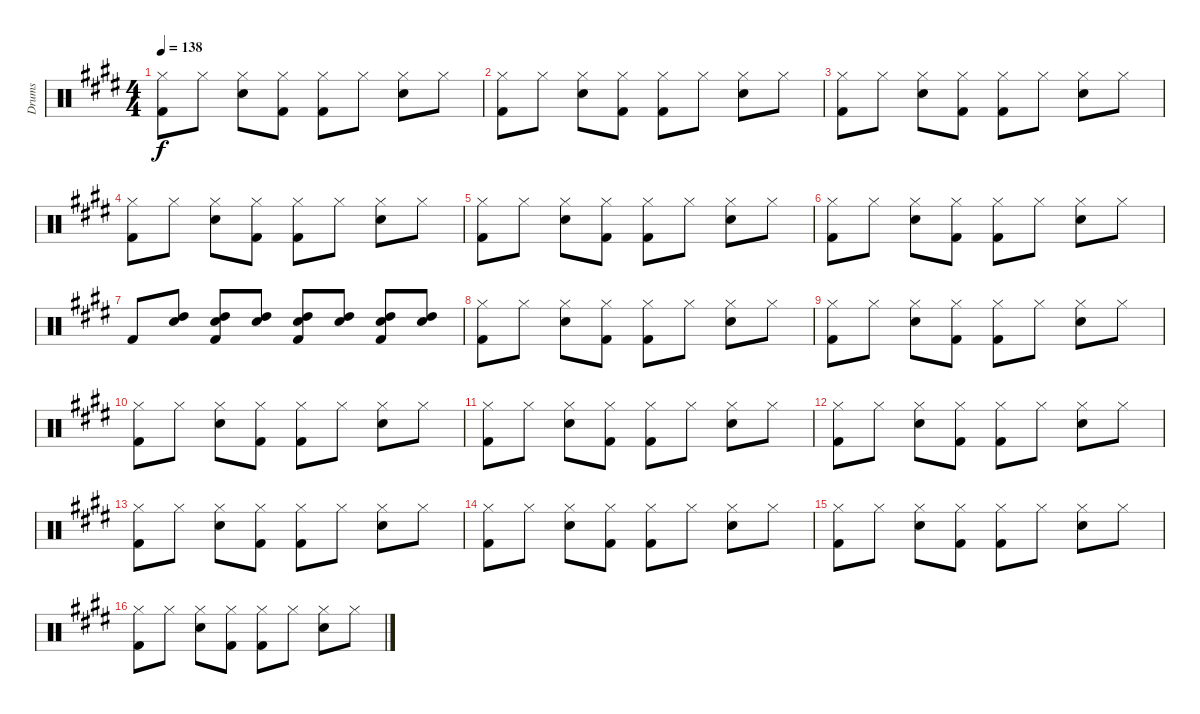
\track ("Drums" "Drums") {instrument percussion}
\staff {score}
\articulation defaults
\ts (4 4)
\tempo 138
\clef neutral
\ks e
("Hi-Hat (closed)" "Kick (hit) 2").8{dy f} "Hi-Hat (closed)".8 ("Hi-Hat (closed)" "Snare (hit) 2").8 ("Hi-Hat (closed)" "Kick (hit) 2").8 ("Hi-Hat (closed)" "Kick (hit) 2").8 "Hi-Hat (closed)".8 ("Hi-Hat (closed)" "Snare (hit) 2").8 "Hi-Hat (closed)".8 |
("Hi-Hat (closed)" "Kick (hit) 2").8 "Hi-Hat (closed)".8 ("Hi-Hat (closed)" "Snare (hit) 2").8 ("Hi-Hat (closed)" "Kick (hit) 2").8 ("Hi-Hat (closed)" "Kick (hit) 2").8 "Hi-Hat (closed)".8 ("Hi-Hat (closed)" "Snare (hit) 2").8 "Hi-Hat (closed)".8 |
("Hi-Hat (closed)" "Kick (hit) 2").8 "Hi-Hat (closed)".8 ("Hi-Hat (closed)" "Snare (hit) 2").8 ("Hi-Hat (closed)" "Kick (hit) 2").8 ("Hi-Hat (closed)" "Kick (hit) 2").8 "Hi-Hat (closed)".8 ("Hi-Hat (closed)" "Snare (hit) 2").8 "Hi-Hat (closed)".8 |
("Hi-Hat (closed)" "Kick (hit) 2").8 "Hi-Hat (closed)".8 ("Hi-Hat (closed)" "Snare (hit) 2").8 ("Hi-Hat (closed)" "Kick (hit) 2").8 ("Hi-Hat (closed)" "Kick (hit) 2").8 "Hi-Hat (closed)".8 ("Hi-Hat (closed)" "Snare (hit) 2").8 "Hi-Hat (closed)".8 |
("Hi-Hat (closed)" "Kick (hit) 2").8 "Hi-Hat (closed)".8 ("Hi-Hat (closed)" "Snare (hit) 2").8 ("Hi-Hat (closed)" "Kick (hit) 2").8 ("Hi-Hat (closed)" "Kick (hit) 2").8 "Hi-Hat (closed)".8 ("Hi-Hat (closed)" "Snare (hit) 2").8 "Hi-Hat (closed)".8 |
("Hi-Hat (closed)" "Kick (hit) 2").8 "Hi-Hat (closed)".8 ("Hi-Hat (closed)" "Snare (hit) 2").8 ("Hi-Hat (closed)" "Kick (hit) 2").8 ("Hi-Hat (closed)" "Kick (hit) 2").8 "Hi-Hat (closed)".8 ("Hi-Hat (closed)" "Snare (hit) 2").8 "Hi-Hat (closed)".8 |
"Kick (hit) 2".8 ("High Tom (hit)" "Snare (hit) 2").8 ("High Tom (hit)" "Snare (hit) 2" "Kick (hit) 2").8 ("High Tom (hit)" "Snare (hit) 2").8 ("High Tom (hit)" "Snare (hit) 2" "Kick (hit) 2").8 ("High Tom (hit)" "Snare (hit) 2").8 ("High Tom (hit)" "Snare (hit) 2" "Kick (hit) 2").8 ("High Tom (hit)" "Snare (hit) 2").8 |
("Hi-Hat (closed)" "Kick (hit) 2").8 "Hi-Hat (closed)".8 ("Hi-Hat (closed)" "Snare (hit) 2").8 ("Hi-Hat (closed)" "Kick (hit) 2").8 ("Hi-Hat (closed)" "Kick (hit) 2").8 "Hi-Hat (closed)".8 ("Hi-Hat (closed)" "Snare (hit) 2").8 "Hi-Hat (closed)".8 |
("Hi-Hat (closed)" "Kick (hit) 2").8 "Hi-Hat (closed)".8 ("Hi-Hat (closed)" "Snare (hit) 2").8 ("Hi-Hat (closed)" "Kick (hit) 2").8 ("Hi-Hat (closed)" "Kick (hit) 2").8 "Hi-Hat (closed)".8 ("Hi-Hat (closed)" "Snare (hit) 2").8 "Hi-Hat (closed)".8 |
("Hi-Hat (closed)" "Kick (hit) 2").8 "Hi-Hat (closed)".8 ("Hi-Hat (closed)" "Snare (hit) 2").8 ("Hi-Hat (closed)" "Kick (hit) 2").8 ("Hi-Hat (closed)" "Kick (hit) 2").8 "Hi-Hat (closed)".8 ("Hi-Hat (closed)" "Snare (hit) 2").8 "Hi-Hat (closed)".8 |
("Hi-Hat (closed)" "Kick (hit) 2").8 "Hi-Hat (closed)".8 ("Hi-Hat (closed)" "Snare (hit) 2").8 ("Hi-Hat (closed)" "Kick (hit) 2").8 ("Hi-Hat (closed)" "Kick (hit) 2").8 "Hi-Hat (closed)".8 ("Hi-Hat (closed)" "Snare (hit) 2").8 "Hi-Hat (closed)".8 |
("Hi-Hat (closed)" "Kick (hit) 2").8 "Hi-Hat (closed)".8 ("Hi-Hat (closed)" "Snare (hit) 2").8 ("Hi-Hat (closed)" "Kick (hit) 2").8 ("Hi-Hat (closed)" "Kick (hit) 2").8 "Hi-Hat (closed)".8 ("Hi-Hat (closed)" "Snare (hit) 2").8 "Hi-Hat (closed)".8 |
("Hi-Hat (closed)" "Kick (hit) 2").8 "Hi-Hat (closed)".8 ("Hi-Hat (closed)" "Snare (hit) 2").8 ("Hi-Hat (closed)" "Kick (hit) 2").8 ("Hi-Hat (closed)" "Kick (hit) 2").8 "Hi-Hat (closed)".8 ("Hi-Hat (closed)" "Snare (hit) 2").8 "Hi-Hat (closed)".8 |
("Hi-Hat (closed)" "Kick (hit) 2").8 "Hi-Hat (closed)".8 ("Hi-Hat (closed)" "Snare (hit) 2").8 ("Hi-Hat (closed)" "Kick (hit) 2").8 ("Hi-Hat (closed)" "Kick (hit) 2").8 "Hi-Hat (closed)".8 ("Hi-Hat (closed)" "Snare (hit) 2").8 "Hi-Hat (closed)".8 |
("Hi-Hat (closed)" "Kick (hit) 2").8 "Hi-Hat (closed)".8 ("Hi-Hat (closed)" "Snare (hit) 2").8 ("Hi-Hat (closed)" "Kick (hit) 2").8 ("Hi-Hat (closed)" "Kick (hit) 2").8 "Hi-Hat (closed)".8 ("Hi-Hat (closed)" "Snare (hit) 2").8 "Hi-Hat (closed)".8 |
("Hi-Hat (closed)" "Kick (hit) 2").8 "Hi-Hat (closed)".8 ("Hi-Hat (closed)" "Snare (hit) 2").8 ("Hi-Hat (closed)" "Kick (hit) 2").8 ("Hi-Hat (closed)" "Kick (hit) 2").8 "Hi-Hat (closed)".8 ("Hi-Hat (closed)" "Snare (hit) 2").8 "Hi-Hat (closed)".8
